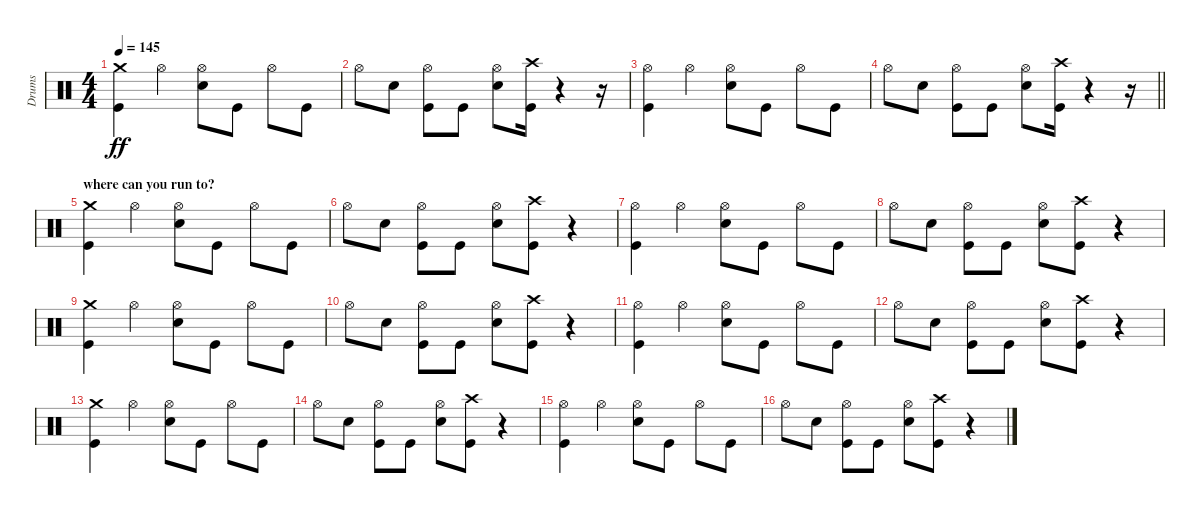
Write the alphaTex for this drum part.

\track ("Drums" "Drums") {instrument percussion}
\staff {score}
\articulation defaults
\ts (4 4)
\tempo 145
\clef neutral
\ks c
("Kick (hit)" "Crash medium (hit)").4{dy ff} "Hi-Hat (open)".4 ("Hi-Hat (open)" "Snare (hit) 2").8 "Kick (hit)".8 "Hi-Hat (open)".8 "Kick (hit)".8 |
"Hi-Hat (open)".8 "Snare (hit) 2".8 ("Hi-Hat (open)" "Kick (hit)").8 "Kick (hit)".8 ("Hi-Hat (open)" "Snare (hit) 2").8 ("Kick (hit)" "Crash high (hit)").16 r.4 r.16 |
("Hi-Hat (open)" "Kick (hit)").4 "Hi-Hat (open)".4 ("Hi-Hat (open)" "Snare (hit) 2").8 "Kick (hit)".8 "Hi-Hat (open)".8 "Kick (hit)".8 |
\barLineRight lightlight "Hi-Hat (open)".8 "Snare (hit) 2".8
("Hi-Hat (open)" "Kick (hit)").8 "Kick (hit)".8 ("Hi-Hat (open)" "Snare (hit) 2").8 ("Kick (hit)" "Crash high (hit)").16 r.4 r.16 |
\section ("" "where can you run to?")
("Kick (hit)" "Crash medium (hit)").4 "Hi-Hat (open)".4 ("Hi-Hat (open)" "Snare (hit) 2").8 "Kick (hit)".8 "Hi-Hat (open)".8 "Kick (hit)".8 |
"Hi-Hat (open)".8 "Snare (hit) 2".8 ("Hi-Hat (open)" "Kick (hit)").8 "Kick (hit)".8 ("Hi-Hat (open)" "Snare (hit) 2").8 ("Kick (hit)" "Crash high (hit)").8 r.4 |
("Hi-Hat (open)" "Kick (hit)").4 "Hi-Hat (open)".4 ("Hi-Hat (open)" "Snare (hit) 2").8 "Kick (hit)".8 "Hi-Hat (open)".8 "Kick (hit)".8 |
"Hi-Hat (open)".8 "Snare (hit) 2".8 ("Hi-Hat (open)" "Kick (hit)").8 "Kick (hit)".8 ("Hi-Hat (open)" "Snare (hit) 2").8 ("Kick (hit)" "Crash high (hit)").8 r.4 |
("Kick (hit)" "Crash medium (hit)").4 "Hi-Hat (open)".4 ("Hi-Hat (open)" "Snare (hit) 2").8 "Kick (hit)".8 "Hi-Hat (open)".8 "Kick (hit)".8 |
"Hi-Hat (open)".8 "Snare (hit) 2".8 ("Hi-Hat (open)" "Kick (hit)").8 "Kick (hit)".8 ("Hi-Hat (open)" "Snare (hit) 2").8 ("Kick (hit)" "Crash high (hit)").8 r.4 |
("Hi-Hat (open)" "Kick (hit)").4 "Hi-Hat (open)".4 ("Hi-Hat (open)" "Snare (hit) 2").8 "Kick (hit)".8 "Hi-Hat (open)".8 "Kick (hit)".8 |
"Hi-Hat (open)".8 "Snare (hit) 2".8 ("Hi-Hat (open)" "Kick (hit)").8 "Kick (hit)".8 ("Hi-Hat (open)" "Snare (hit) 2").8 ("Kick (hit)" "Crash high (hit)").8 r.4 |
("Kick (hit)" "Crash medium (hit)").4 "Hi-Hat (open)".4 ("Hi-Hat (open)" "Snare (hit) 2").8 "Kick (hit)".8 "Hi-Hat (open)".8 "Kick (hit)".8 |
"Hi-Hat (open)".8 "Snare (hit) 2".8 ("Hi-Hat (open)" "Kick (hit)").8 "Kick (hit)".8 ("Hi-Hat (open)" "Snare (hit) 2").8 ("Kick (hit)" "Crash high (hit)").8 r.4 |
("Hi-Hat (open)" "Kick (hit)").4 "Hi-Hat (open)".4 ("Hi-Hat (open)" "Snare (hit) 2").8 "Kick (hit)".8 "Hi-Hat (open)".8 "Kick (hit)".8 |
"Hi-Hat (open)".8 "Snare (hit) 2".8 ("Hi-Hat (open)" "Kick (hit)").8 "Kick (hit)".8 ("Hi-Hat (open)" "Snare (hit) 2").8 ("Kick (hit)" "Crash high (hit)").8 r.4
